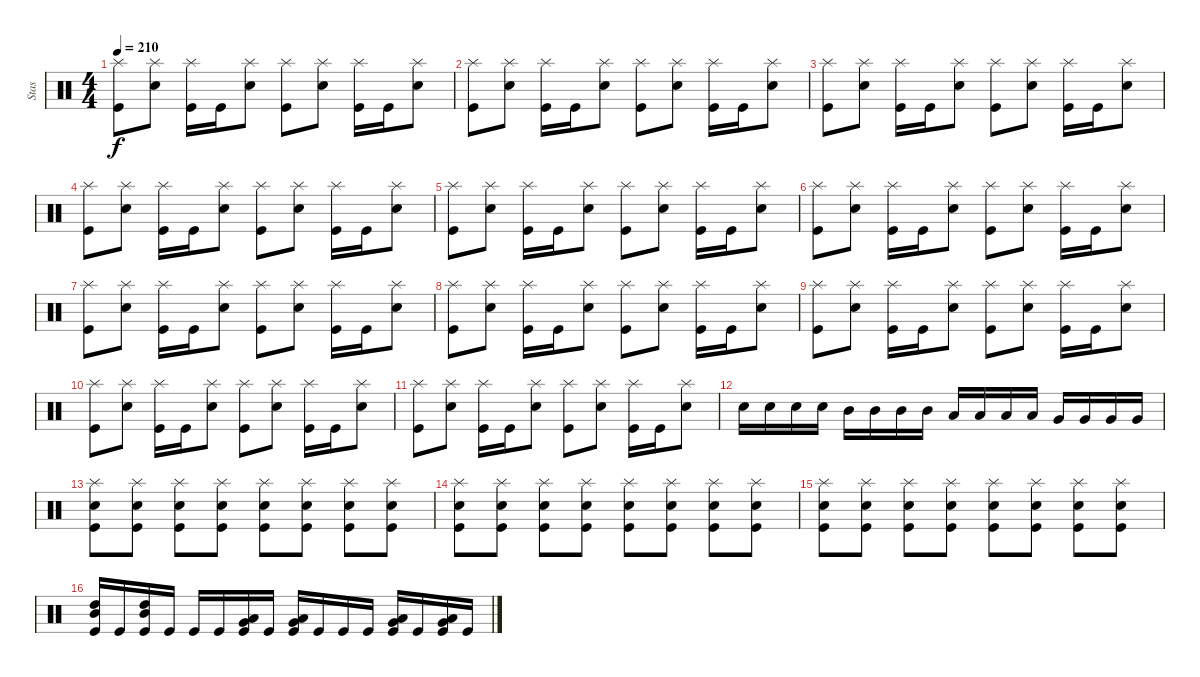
\track ("Stas" "Stas") {instrument percussion}
\staff {score}
\articulation defaults
\ts (4 4)
\tempo 210
\clef neutral
\ks c
("Splash (hit)" "Kick (hit)").8{dy f} ("Splash (hit)" "Electric Snare (hit)").8 ("Splash (hit)" "Kick (hit)").16 "Kick (hit)".16 ("Splash (hit)" "Electric Snare (hit)").8 ("Splash (hit)" "Kick (hit)").8 ("Splash (hit)" "Electric Snare (hit)").8 ("Splash (hit)" "Kick (hit)").16 "Kick (hit)".16 ("Splash (hit)" "Electric Snare (hit)").8 |
("Splash (hit)" "Kick (hit)").8 ("Splash (hit)" "Electric Snare (hit)").8 ("Splash (hit)" "Kick (hit)").16 "Kick (hit)".16 ("Splash (hit)" "Electric Snare (hit)").8 ("Splash (hit)" "Kick (hit)").8 ("Splash (hit)" "Electric Snare (hit)").8 ("Splash (hit)" "Kick (hit)").16 "Kick (hit)".16 ("Splash (hit)" "Electric Snare (hit)").8 |
("Splash (hit)" "Kick (hit)").8 ("Splash (hit)" "Electric Snare (hit)").8 ("Splash (hit)" "Kick (hit)").16 "Kick (hit)".16 ("Splash (hit)" "Electric Snare (hit)").8 ("Splash (hit)" "Kick (hit)").8 ("Splash (hit)" "Electric Snare (hit)").8 ("Splash (hit)" "Kick (hit)").16 "Kick (hit)".16 ("Splash (hit)" "Electric Snare (hit)").8 |
("Splash (hit)" "Kick (hit)").8 ("Splash (hit)" "Electric Snare (hit)").8 ("Splash (hit)" "Kick (hit)").16 "Kick (hit)".16 ("Splash (hit)" "Electric Snare (hit)").8 ("Splash (hit)" "Kick (hit)").8 ("Splash (hit)" "Electric Snare (hit)").8 ("Splash (hit)" "Kick (hit)").16 "Kick (hit)".16 ("Splash (hit)" "Electric Snare (hit)").8 |
("Splash (hit)" "Kick (hit)").8 ("Splash (hit)" "Electric Snare (hit)").8 ("Splash (hit)" "Kick (hit)").16 "Kick (hit)".16 ("Splash (hit)" "Electric Snare (hit)").8 ("Splash (hit)" "Kick (hit)").8 ("Splash (hit)" "Electric Snare (hit)").8 ("Splash (hit)" "Kick (hit)").16 "Kick (hit)".16 ("Splash (hit)" "Electric Snare (hit)").8 |
("Splash (hit)" "Kick (hit)").8 ("Splash (hit)" "Electric Snare (hit)").8 ("Splash (hit)" "Kick (hit)").16 "Kick (hit)".16 ("Splash (hit)" "Electric Snare (hit)").8 ("Splash (hit)" "Kick (hit)").8 ("Splash (hit)" "Electric Snare (hit)").8 ("Splash (hit)" "Kick (hit)").16 "Kick (hit)".16 ("Splash (hit)" "Electric Snare (hit)").8 |
("Splash (hit)" "Kick (hit)").8 ("Splash (hit)" "Electric Snare (hit)").8 ("Splash (hit)" "Kick (hit)").16 "Kick (hit)".16 ("Splash (hit)" "Electric Snare (hit)").8 ("Splash (hit)" "Kick (hit)").8 ("Splash (hit)" "Electric Snare (hit)").8 ("Splash (hit)" "Kick (hit)").16 "Kick (hit)".16 ("Splash (hit)" "Electric Snare (hit)").8 |
("Splash (hit)" "Kick (hit)").8 ("Splash (hit)" "Electric Snare (hit)").8 ("Splash (hit)" "Kick (hit)").16 "Kick (hit)".16 ("Splash (hit)" "Electric Snare (hit)").8 ("Splash (hit)" "Kick (hit)").8 ("Splash (hit)" "Electric Snare (hit)").8 ("Splash (hit)" "Kick (hit)").16 "Kick (hit)".16 ("Splash (hit)" "Electric Snare (hit)").8 |
("Splash (hit)" "Kick (hit)").8 ("Splash (hit)" "Electric Snare (hit)").8 ("Splash (hit)" "Kick (hit)").16 "Kick (hit)".16 ("Splash (hit)" "Electric Snare (hit)").8 ("Splash (hit)" "Kick (hit)").8 ("Splash (hit)" "Electric Snare (hit)").8 ("Splash (hit)" "Kick (hit)").16 "Kick (hit)".16 ("Splash (hit)" "Electric Snare (hit)").8 |
("Splash (hit)" "Kick (hit)").8 ("Splash (hit)" "Electric Snare (hit)").8 ("Splash (hit)" "Kick (hit)").16 "Kick (hit)".16 ("Splash (hit)" "Electric Snare (hit)").8 ("Splash (hit)" "Kick (hit)").8 ("Splash (hit)" "Electric Snare (hit)").8 ("Splash (hit)" "Kick (hit)").16 "Kick (hit)".16 ("Splash (hit)" "Electric Snare (hit)").8 |
("Splash (hit)" "Kick (hit)").8 ("Splash (hit)" "Electric Snare (hit)").8 ("Splash (hit)" "Kick (hit)").16 "Kick (hit)".16 ("Splash (hit)" "Electric Snare (hit)").8 ("Splash (hit)" "Kick (hit)").8 ("Splash (hit)" "Electric Snare (hit)").8 ("Splash (hit)" "Kick (hit)").16 "Kick (hit)".16 ("Splash (hit)" "Electric Snare (hit)").8 |
"Electric Snare (hit)".16 "Electric Snare (hit)".16 "Electric Snare (hit)".16 "Electric Snare (hit)".16 "Mid Tom (hit)".16 "Mid Tom (hit)".16 "Mid Tom (hit)".16 "Mid Tom (hit)".16 "Low Tom (hit)".16 "Low Tom (hit)".16 "Low Tom (hit)".16 "Low Tom (hit)".16 "Very Low Tom (hit)".16 "Very Low Tom (hit)".16 "Very Low Tom (hit)".16 "Very Low Tom (hit)".16 |
("Kick (hit)" "Electric Snare (hit)" "Splash (hit)").8 ("Kick (hit)" "Electric Snare (hit)" "Splash (hit)").8 ("Kick (hit)" "Electric Snare (hit)" "Splash (hit)").8 ("Kick (hit)" "Electric Snare (hit)" "Splash (hit)").8 ("Kick (hit)" "Electric Snare (hit)" "Splash (hit)").8 ("Kick (hit)" "Electric Snare (hit)" "Splash (hit)").8 ("Kick (hit)" "Electric Snare (hit)" "Splash (hit)").8 ("Kick (hit)" "Electric Snare (hit)" "Splash (hit)").8 |
("Kick (hit)" "Electric Snare (hit)" "Splash (hit)").8 ("Kick (hit)" "Electric Snare (hit)" "Splash (hit)").8 ("Kick (hit)" "Electric Snare (hit)" "Splash (hit)").8 ("Kick (hit)" "Electric Snare (hit)" "Splash (hit)").8 ("Kick (hit)" "Electric Snare (hit)" "Splash (hit)").8 ("Kick (hit)" "Electric Snare (hit)" "Splash (hit)").8 ("Kick (hit)" "Electric Snare (hit)" "Splash (hit)").8 ("Kick (hit)" "Electric Snare (hit)" "Splash (hit)").8 |
("Kick (hit)" "Electric Snare (hit)" "Splash (hit)").8 ("Kick (hit)" "Electric Snare (hit)" "Splash (hit)").8 ("Kick (hit)" "Electric Snare (hit)" "Splash (hit)").8 ("Kick (hit)" "Electric Snare (hit)" "Splash (hit)").8 ("Kick (hit)" "Electric Snare (hit)" "Splash (hit)").8 ("Kick (hit)" "Electric Snare (hit)" "Splash (hit)").8 ("Kick (hit)" "Electric Snare (hit)" "Splash (hit)").8 ("Kick (hit)" "Electric Snare (hit)" "Splash (hit)").8 |
("Mid Tom (hit)" "High Tom (hit)" "Kick (hit)").16 "Kick (hit)".16 ("Mid Tom (hit)" "High Tom (hit)" "Kick (hit)").16 "Kick (hit)".16 "Kick (hit)".16 "Kick (hit)".16 ("Very Low Tom (hit)" "Low Tom (hit)" "Kick (hit)").16 "Kick (hit)".16 ("Very Low Tom (hit)" "Low Tom (hit)" "Kick (hit)").16 "Kick (hit)".16 "Kick (hit)".16 "Kick (hit)".16 ("Low Floor Tom (hit)" "Very Low Tom (hit)" "Kick (hit)").16 "Kick (hit)".16 ("Low Floor Tom (hit)" "Very Low Tom (hit)" "Kick (hit)").16 "Kick (hit)".16
